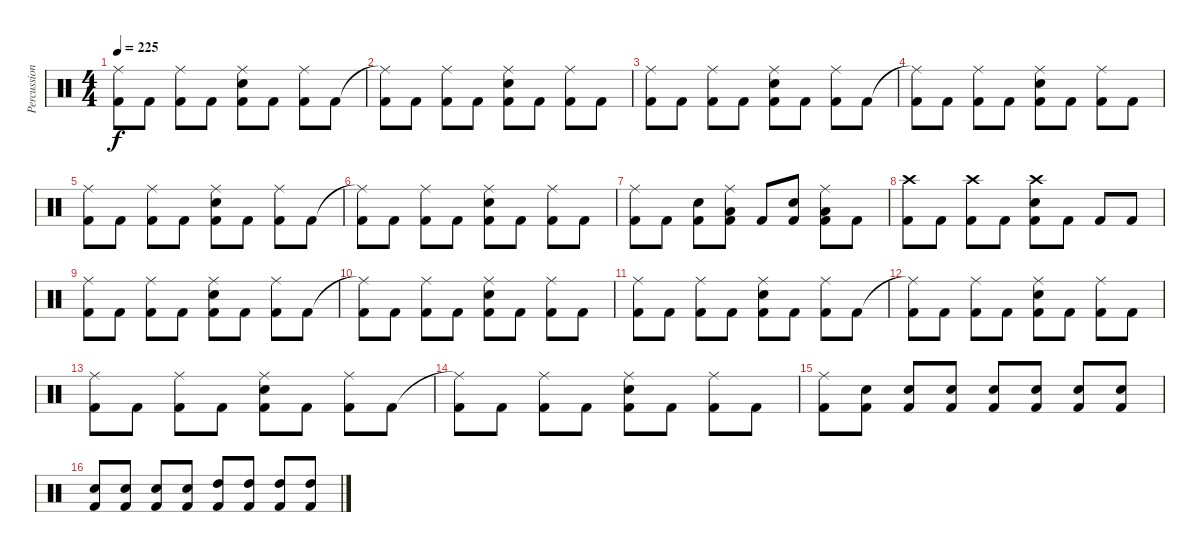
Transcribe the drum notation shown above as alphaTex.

\track ("Percussion" "Percussion") {instrument percussion}
\staff {score}
\articulation defaults
\ts (4 4)
\tempo 225
\clef neutral
\ks c
("Ride (middle)" "Kick (hit) 2").8{dy f} "Kick (hit) 2".8 ("Ride (middle)" "Kick (hit) 2").8 "Kick (hit) 2".8 ("Ride (middle)" "Snare (hit) 2" "Kick (hit) 2").8 "Kick (hit) 2".8 ("Ride (middle)" "Kick (hit) 2").8 "Kick (hit) 2".8 |
("Ride (middle)"{t} "Kick (hit) 2").8 "Kick (hit) 2".8 ("Ride (middle)" "Kick (hit) 2").8 "Kick (hit) 2".8 ("Ride (middle)" "Snare (hit) 2" "Kick (hit) 2").8 "Kick (hit) 2".8 ("Ride (middle)" "Kick (hit) 2").8 "Kick (hit) 2".8 |
("Ride (middle)" "Kick (hit) 2").8 "Kick (hit) 2".8 ("Ride (middle)" "Kick (hit) 2").8 "Kick (hit) 2".8 ("Ride (middle)" "Snare (hit) 2" "Kick (hit) 2").8 "Kick (hit) 2".8 ("Ride (middle)" "Kick (hit) 2").8 "Kick (hit) 2".8 |
("Ride (middle)"{t} "Kick (hit) 2").8 "Kick (hit) 2".8 ("Ride (middle)" "Kick (hit) 2").8 "Kick (hit) 2".8 ("Ride (middle)" "Snare (hit) 2" "Kick (hit) 2").8 "Kick (hit) 2".8 ("Ride (middle)" "Kick (hit) 2").8 "Kick (hit) 2".8 |
("Ride (middle)" "Kick (hit) 2").8 "Kick (hit) 2".8 ("Ride (middle)" "Kick (hit) 2").8 "Kick (hit) 2".8 ("Ride (middle)" "Snare (hit) 2" "Kick (hit) 2").8 "Kick (hit) 2".8 ("Ride (middle)" "Kick (hit) 2").8 "Kick (hit) 2".8 |
("Ride (middle)"{t} "Kick (hit) 2").8 "Kick (hit) 2".8 ("Ride (middle)" "Kick (hit) 2").8 "Kick (hit) 2".8 ("Ride (middle)" "Snare (hit) 2" "Kick (hit) 2").8 "Kick (hit) 2".8 ("Ride (middle)" "Kick (hit) 2").8 "Kick (hit) 2".8 |
("Ride (middle)" "Kick (hit) 2").8 "Kick (hit) 2".8 ("Snare (hit) 2" "Kick (hit) 2").8 ("Ride (middle)" "Low Tom (hit)" "Kick (hit) 2").8 "Kick (hit) 2".8 ("Snare (hit) 2" "Kick (hit) 2").8 ("Ride (middle)" "Low Tom (hit)" "Kick (hit) 2").8 "Kick (hit) 2".8 |
("Crash high (hit)" "Kick (hit) 2").8 "Kick (hit) 2".8 ("Crash high (hit)" "Kick (hit) 2").8 "Kick (hit) 2".8 ("Crash high (hit)" "Snare (hit) 2" "Kick (hit) 2").8 "Kick (hit) 2".8 "Kick (hit) 2".8 "Kick (hit) 2".8 |
("Ride (middle)" "Kick (hit) 2").8 "Kick (hit) 2".8 ("Ride (middle)" "Kick (hit) 2").8 "Kick (hit) 2".8 ("Ride (middle)" "Snare (hit) 2" "Kick (hit) 2").8 "Kick (hit) 2".8 ("Ride (middle)" "Kick (hit) 2").8 "Kick (hit) 2".8 |
("Ride (middle)"{t} "Kick (hit) 2").8 "Kick (hit) 2".8 ("Ride (middle)" "Kick (hit) 2").8 "Kick (hit) 2".8 ("Ride (middle)" "Snare (hit) 2" "Kick (hit) 2").8 "Kick (hit) 2".8 ("Ride (middle)" "Kick (hit) 2").8 "Kick (hit) 2".8 |
("Ride (middle)" "Kick (hit) 2").8 "Kick (hit) 2".8 ("Ride (middle)" "Kick (hit) 2").8 "Kick (hit) 2".8 ("Ride (middle)" "Snare (hit) 2" "Kick (hit) 2").8 "Kick (hit) 2".8 ("Ride (middle)" "Kick (hit) 2").8 "Kick (hit) 2".8 |
("Ride (middle)"{t} "Kick (hit) 2").8 "Kick (hit) 2".8 ("Ride (middle)" "Kick (hit) 2").8 "Kick (hit) 2".8 ("Ride (middle)" "Snare (hit) 2" "Kick (hit) 2").8 "Kick (hit) 2".8 ("Ride (middle)" "Kick (hit) 2").8 "Kick (hit) 2".8 |
("Ride (middle)" "Kick (hit) 2").8 "Kick (hit) 2".8 ("Ride (middle)" "Kick (hit) 2").8 "Kick (hit) 2".8 ("Ride (middle)" "Snare (hit) 2" "Kick (hit) 2").8 "Kick (hit) 2".8 ("Ride (middle)" "Kick (hit) 2").8 "Kick (hit) 2".8 |
("Ride (middle)"{t} "Kick (hit) 2").8 "Kick (hit) 2".8 ("Ride (middle)" "Kick (hit) 2").8 "Kick (hit) 2".8 ("Ride (middle)" "Snare (hit) 2" "Kick (hit) 2").8 "Kick (hit) 2".8 ("Ride (middle)" "Kick (hit) 2").8 "Kick (hit) 2".8 |
("Ride (middle)" "Kick (hit) 2").8 ("Electric Snare (hit)" "Kick (hit) 2").8 ("Electric Snare (hit)" "Kick (hit) 2").8 ("Electric Snare (hit)" "Kick (hit) 2").8 ("Electric Snare (hit)" "Kick (hit) 2").8 ("Electric Snare (hit)" "Kick (hit) 2").8 ("Electric Snare (hit)" "Kick (hit) 2").8 ("Electric Snare (hit)" "Kick (hit) 2").8 |
("Electric Snare (hit)" "Kick (hit) 2").8 ("Electric Snare (hit)" "Kick (hit) 2").8 ("Electric Snare (hit)" "Kick (hit) 2").8 ("Electric Snare (hit)" "Kick (hit) 2").8 ("High Tom (hit)" "Kick (hit) 2").8 ("High Tom (hit)" "Kick (hit) 2").8 ("High Tom (hit)" "Kick (hit) 2").8 ("High Tom (hit)" "Kick (hit) 2").8
